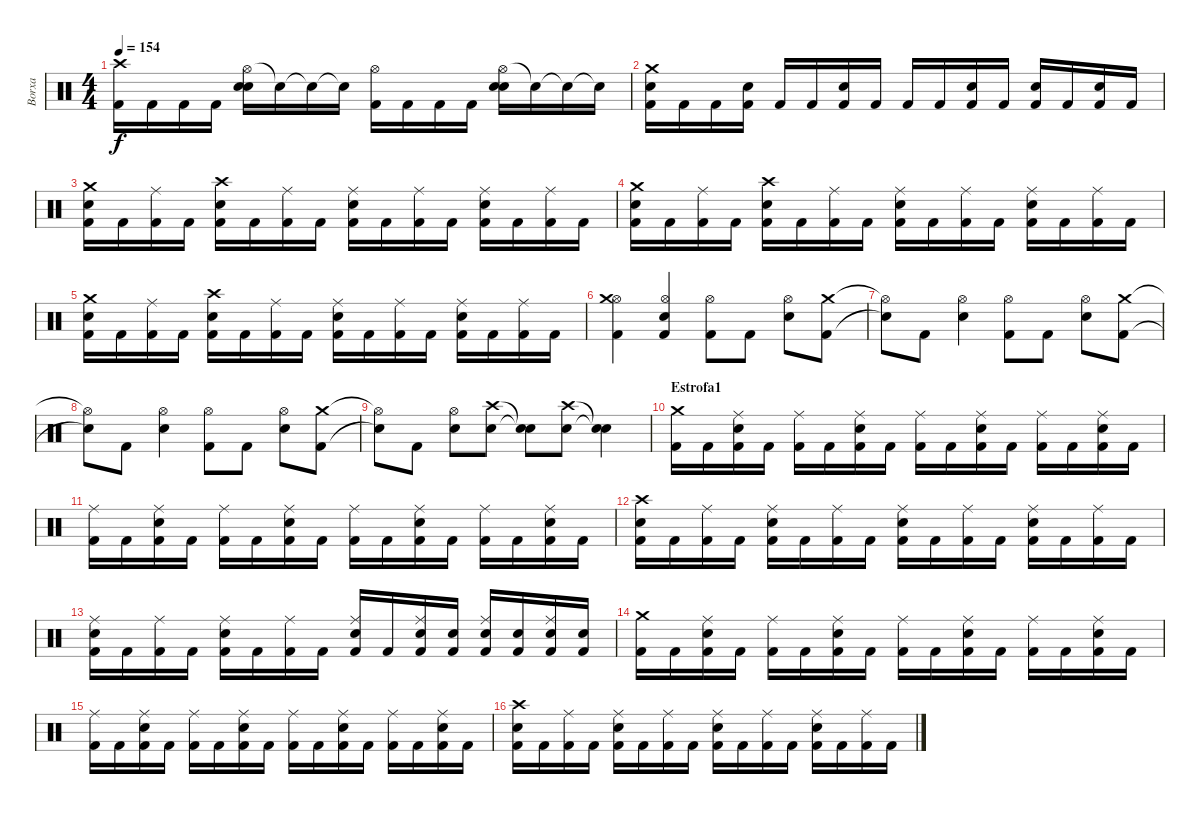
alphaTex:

\track ("Borxa" "Borxa") {instrument percussion}
\staff {score}
\articulation defaults
\ts (4 4)
\tempo 154
\clef neutral
\ks c
("Crash high (hit)" "Kick (hit) 2").16{dy f} "Kick (hit) 2".16 "Kick (hit) 2".16 "Kick (hit) 2".16 ("Hi-Hat (open)" "Snare (hit) 2" "Snare (hit) 2").16 "Snare (hit)"{t}.16 "Snare (hit)"{t}.16 "Snare (hit)"{t}.16 ("Hi-Hat (open)" "Kick (hit) 2").16 "Kick (hit) 2".16 "Kick (hit) 2".16 "Kick (hit) 2".16 ("Hi-Hat (open)" "Snare (hit) 2" "Snare (hit) 2").16 "Snare (hit)"{t}.16 "Snare (hit)"{t}.16 "Snare (hit)"{t}.16 |
("Crash medium (hit)" "Snare (hit) 2" "Kick (hit) 2").16 "Kick (hit) 2".16 "Kick (hit) 2".16 ("Snare (hit) 2" "Kick (hit) 2").16 "Kick (hit) 2".16 "Kick (hit) 2".16 ("Snare (hit) 2" "Kick (hit) 2").16 "Kick (hit) 2".16 "Kick (hit) 2".16 "Kick (hit) 2".16 ("Snare (hit) 2" "Kick (hit) 2").16 "Kick (hit) 2".16 ("Snare (hit) 2" "Kick (hit) 2").16 "Kick (hit) 2".16 ("Snare (hit) 2" "Kick (hit) 2").16 "Kick (hit) 2".16 |
("Crash medium (hit)" "Snare (hit) 2" "Kick (hit) 2").16 "Kick (hit) 2".16 ("Ride (middle)" "Kick (hit) 2").16 "Kick (hit) 2".16 ("Crash high (hit)" "Snare (hit) 2" "Kick (hit) 2").16 "Kick (hit) 2".16 ("Ride (middle)" "Kick (hit) 2").16 "Kick (hit) 2".16 ("Snare (hit) 2" "Ride (middle)" "Kick (hit) 2").16 "Kick (hit) 2".16 ("Ride (middle)" "Kick (hit) 2").16 "Kick (hit) 2".16 ("Snare (hit) 2" "Ride (middle)" "Kick (hit) 2").16 "Kick (hit) 2".16 ("Ride (middle)" "Kick (hit) 2").16 "Kick (hit) 2".16 |
("Crash medium (hit)" "Snare (hit) 2" "Kick (hit) 2").16 "Kick (hit) 2".16 ("Ride (middle)" "Kick (hit) 2").16 "Kick (hit) 2".16 ("Crash high (hit)" "Snare (hit) 2" "Kick (hit) 2").16 "Kick (hit) 2".16 ("Ride (middle)" "Kick (hit) 2").16 "Kick (hit) 2".16 ("Snare (hit) 2" "Ride (middle)" "Kick (hit) 2").16 "Kick (hit) 2".16 ("Ride (middle)" "Kick (hit) 2").16 "Kick (hit) 2".16 ("Snare (hit) 2" "Ride (middle)" "Kick (hit) 2").16 "Kick (hit) 2".16 ("Ride (middle)" "Kick (hit) 2").16 "Kick (hit) 2".16 |
("Crash medium (hit)" "Snare (hit) 2" "Kick (hit) 2").16 "Kick (hit) 2".16 ("Ride (middle)" "Kick (hit) 2").16 "Kick (hit) 2".16 ("Crash high (hit)" "Snare (hit) 2" "Kick (hit) 2").16 "Kick (hit) 2".16 ("Ride (middle)" "Kick (hit) 2").16 "Kick (hit) 2".16 ("Snare (hit) 2" "Ride (middle)" "Kick (hit) 2").16 "Kick (hit) 2".16 ("Ride (middle)" "Kick (hit) 2").16 "Kick (hit) 2".16 ("Snare (hit) 2" "Ride (middle)" "Kick (hit) 2").16 "Kick (hit) 2".16 ("Ride (middle)" "Kick (hit) 2").16 "Kick (hit) 2".16 |
("Hi-Hat (open)" "Crash medium (hit)" "Kick (hit) 2").4 ("Hi-Hat (open)" "Snare (hit) 2" "Kick (hit) 2").4 ("Hi-Hat (open)" "Kick (hit) 2").8 "Kick (hit) 2".8 ("Hi-Hat (open)" "Snare (hit) 2").8 ("Crash medium (hit)" "Kick (hit) 2").8 |
("Hi-Hat (open)"{t} "Snare (hit)"{t}).8 "Kick (hit) 2".8 ("Hi-Hat (open)" "Snare (hit) 2").4 ("Hi-Hat (open)" "Kick (hit) 2").8 "Kick (hit) 2".8 ("Hi-Hat (open)" "Snare (hit) 2").8 ("Crash medium (hit)" "Kick (hit) 2").8 |
("Hi-Hat (open)"{t} "Snare (hit)"{t}).8 "Kick (hit) 2".8 ("Hi-Hat (open)" "Snare (hit) 2").4 ("Hi-Hat (open)" "Kick (hit) 2").8 "Kick (hit) 2".8 ("Hi-Hat (open)" "Snare (hit) 2").8 ("Crash medium (hit)" "Kick (hit) 2").8 |
("Hi-Hat (open)"{t} "Snare (hit)"{t}).8 "Kick (hit) 2".8 ("Hi-Hat (open)" "Snare (hit) 2").8 ("Crash high (hit)" "Snare (hit) 2").8 ("Snare (hit)"{t} "Snare (hit)"{t}).8 ("Crash high (hit)" "Snare (hit) 2").8 ("Snare (hit)"{t} "Snare (hit)"{t}).4 |
\section ("" "Estrofa1")
("Crash medium (hit)" "Kick (hit) 2").16 "Kick (hit) 2".16 ("Ride (middle)" "Electric Snare (hit)" "Kick (hit) 2").16 "Kick (hit) 2".16 ("Ride (middle)" "Kick (hit) 2").16 "Kick (hit) 2".16 ("Ride (middle)" "Electric Snare (hit)" "Kick (hit) 2").16 "Kick (hit) 2".16 ("Ride (middle)" "Kick (hit) 2").16 "Kick (hit) 2".16 ("Ride (middle)" "Electric Snare (hit)" "Kick (hit) 2").16 "Kick (hit) 2".16 ("Ride (middle)" "Kick (hit) 2").16 "Kick (hit) 2".16 ("Ride (middle)" "Electric Snare (hit)" "Kick (hit) 2").16 "Kick (hit) 2".16 |
("Ride (middle)" "Kick (hit) 2").16 "Kick (hit) 2".16 ("Ride (middle)" "Electric Snare (hit)" "Kick (hit) 2").16 "Kick (hit) 2".16 ("Ride (middle)" "Kick (hit) 2").16 "Kick (hit) 2".16 ("Ride (middle)" "Electric Snare (hit)" "Kick (hit) 2").16 "Kick (hit) 2".16 ("Ride (middle)" "Kick (hit) 2").16 "Kick (hit) 2".16 ("Ride (middle)" "Electric Snare (hit)" "Kick (hit) 2").16 "Kick (hit) 2".16 ("Ride (middle)" "Kick (hit) 2").16 "Kick (hit) 2".16 ("Ride (middle)" "Electric Snare (hit)" "Kick (hit) 2").16 "Kick (hit) 2".16 |
("Crash high (hit)" "Electric Snare (hit)" "Kick (hit) 2").16 "Kick (hit) 2".16 ("Ride (middle)" "Kick (hit) 2").16 "Kick (hit) 2".16 ("Ride (middle)" "Electric Snare (hit)" "Kick (hit) 2").16 "Kick (hit) 2".16 ("Ride (middle)" "Kick (hit) 2").16 "Kick (hit) 2".16 ("Ride (middle)" "Electric Snare (hit)" "Kick (hit) 2").16 "Kick (hit) 2".16 ("Ride (middle)" "Kick (hit) 2").16 "Kick (hit) 2".16 ("Ride (middle)" "Electric Snare (hit)" "Kick (hit) 2").16 "Kick (hit) 2".16 ("Ride (middle)" "Kick (hit) 2").16 "Kick (hit) 2".16 |
("Ride (middle)" "Electric Snare (hit)" "Kick (hit) 2").16 "Kick (hit) 2".16 ("Ride (middle)" "Kick (hit) 2").16 "Kick (hit) 2".16 ("Ride (middle)" "Electric Snare (hit)" "Kick (hit) 2").16 "Kick (hit) 2".16 ("Ride (middle)" "Kick (hit) 2").16 "Kick (hit) 2".16 ("Ride (middle)" "Electric Snare (hit)" "Kick (hit) 2").16 "Kick (hit) 2".16 ("Ride (middle)" "Electric Snare (hit)" "Kick (hit) 2").16 ("Electric Snare (hit)" "Kick (hit) 2").16 ("Ride (middle)" "Electric Snare (hit)" "Kick (hit) 2").16 ("Electric Snare (hit)" "Kick (hit) 2").16 ("Ride (middle)" "Electric Snare (hit)" "Kick (hit) 2").16 ("Electric Snare (hit)" "Kick (hit) 2").16 |
("Crash medium (hit)" "Kick (hit) 2").16 "Kick (hit) 2".16 ("Ride (middle)" "Electric Snare (hit)" "Kick (hit) 2").16 "Kick (hit) 2".16 ("Ride (middle)" "Kick (hit) 2").16 "Kick (hit) 2".16 ("Ride (middle)" "Electric Snare (hit)" "Kick (hit) 2").16 "Kick (hit) 2".16 ("Ride (middle)" "Kick (hit) 2").16 "Kick (hit) 2".16 ("Ride (middle)" "Electric Snare (hit)" "Kick (hit) 2").16 "Kick (hit) 2".16 ("Ride (middle)" "Kick (hit) 2").16 "Kick (hit) 2".16 ("Ride (middle)" "Electric Snare (hit)" "Kick (hit) 2").16 "Kick (hit) 2".16 |
("Ride (middle)" "Kick (hit) 2").16 "Kick (hit) 2".16 ("Ride (middle)" "Electric Snare (hit)" "Kick (hit) 2").16 "Kick (hit) 2".16 ("Ride (middle)" "Kick (hit) 2").16 "Kick (hit) 2".16 ("Ride (middle)" "Electric Snare (hit)" "Kick (hit) 2").16 "Kick (hit) 2".16 ("Ride (middle)" "Kick (hit) 2").16 "Kick (hit) 2".16 ("Ride (middle)" "Electric Snare (hit)" "Kick (hit) 2").16 "Kick (hit) 2".16 ("Ride (middle)" "Kick (hit) 2").16 "Kick (hit) 2".16 ("Ride (middle)" "Electric Snare (hit)" "Kick (hit) 2").16 "Kick (hit) 2".16 |
("Crash high (hit)" "Electric Snare (hit)" "Kick (hit) 2").16 "Kick (hit) 2".16 ("Ride (middle)" "Kick (hit) 2").16 "Kick (hit) 2".16 ("Ride (middle)" "Electric Snare (hit)" "Kick (hit) 2").16 "Kick (hit) 2".16 ("Ride (middle)" "Kick (hit) 2").16 "Kick (hit) 2".16 ("Ride (middle)" "Electric Snare (hit)" "Kick (hit) 2").16 "Kick (hit) 2".16 ("Ride (middle)" "Kick (hit) 2").16 "Kick (hit) 2".16 ("Ride (middle)" "Electric Snare (hit)" "Kick (hit) 2").16 "Kick (hit) 2".16 ("Ride (middle)" "Kick (hit) 2").16 "Kick (hit) 2".16
